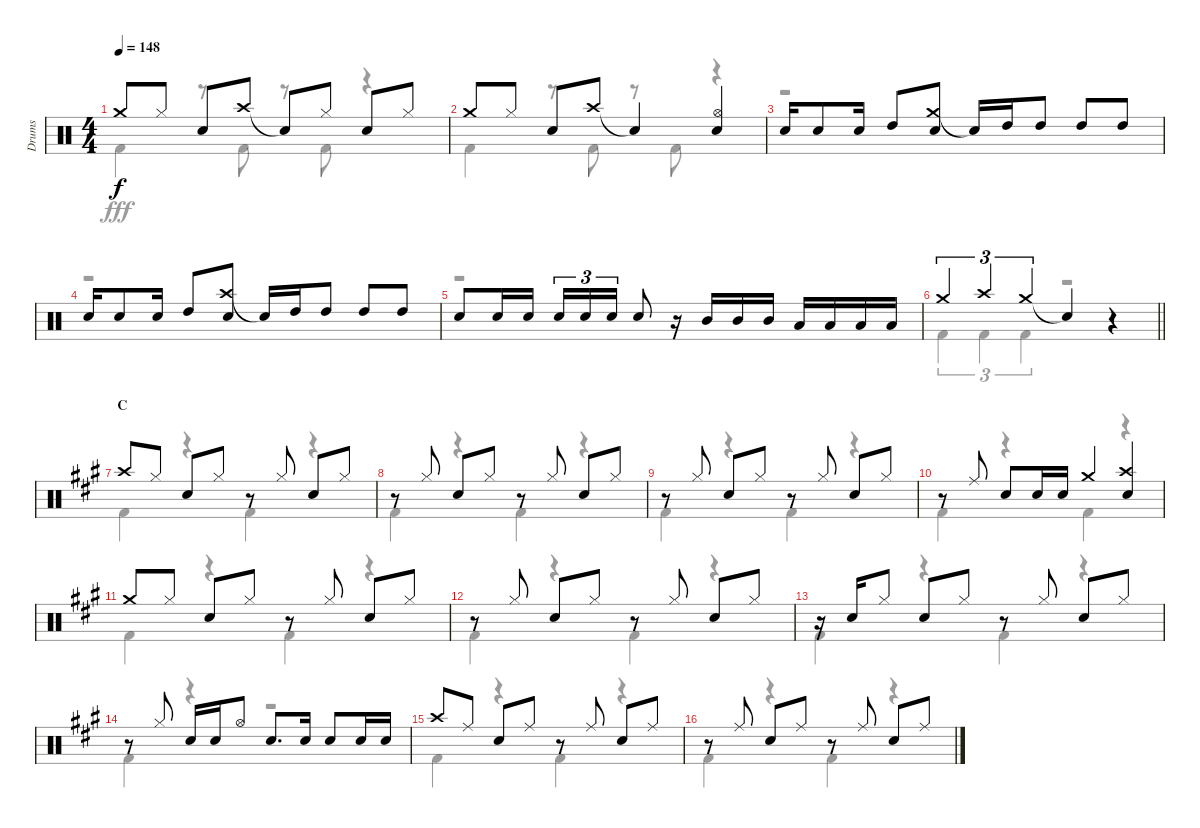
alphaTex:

\track ("Drums" "Drums") {instrument percussion}
\staff {score}
\articulation defaults
\voice
\ts (4 4)
\tempo 148
\clef neutral
\ks c "Crash medium (hit)".8{dy f} "Hi-Hat (closed)".8 "Snare (hit) 2".8 "Crash high (hit)".8 "Snare (hit)"{t}.8 "Hi-Hat (closed)".8 "Snare (hit) 2".8 "Hi-Hat (closed)".8
|
"Crash medium (hit)".8 "Hi-Hat (closed)".8 "Snare (hit) 2".8 "Crash high (hit)".8 "Snare (hit)"{t}.4 ("Hi-Hat (open)" "Snare (hit) 2").4 |
"Snare (hit) 2".16 "Snare (hit) 2".8 "Snare (hit) 2".16 "High Tom (hit)".8 ("Crash medium (hit)" "Snare (hit) 2").8 "Snare (hit)"{t}.16 "High Tom (hit)".16 "High Tom (hit)".8 "High Tom (hit)".8 "High Tom (hit)".8 |
"Snare (hit) 2".16 "Snare (hit) 2".8 "Snare (hit) 2".16 "High Tom (hit)".8 ("Crash high (hit)" "Snare (hit) 2").8 "Snare (hit)"{t}.16 "High Tom (hit)".16 "High Tom (hit)".8 "High Tom (hit)".8 "High Tom (hit)".8 |
"Snare (hit) 2".8 "Snare (hit) 2".16 "Snare (hit) 2".16 "Snare (hit) 2".16{tu (3 2)} "Snare (hit) 2".16{tu (3 2)} "Snare (hit) 2".16{tu (3 2)} "Snare (hit) 2".8 r.16 "Mid Tom (hit)".16 "Mid Tom (hit)".16 "Mid Tom (hit)".16 "Low Tom (hit)".16 "Low Tom (hit)".16 "Low Tom (hit)".16 "Low Tom (hit)".16 |
\barLineRight lightlight "Crash medium (hit)".4{tu (3 2)} "Crash high (hit)".4{tu (3 2)} "Crash medium (hit)".4{tu (3 2)} "Snare (hit)"{t}.4
r.4 |
\section ("" "C")
\ks a "Crash high (hit)".8 "Hi-Hat (closed)".8 "Snare (hit) 2".8 "Hi-Hat (closed)".8
r.8 "Hi-Hat (closed)".8 "Snare (hit) 2".8 "Hi-Hat (closed)".8 |
r.8 "Hi-Hat (closed)".8 "Snare (hit) 2".8 "Hi-Hat (closed)".8 r.8 "Hi-Hat (closed)".8 "Snare (hit) 2".8 "Hi-Hat (closed)".8 |
r.8 "Hi-Hat (closed)".8 "Snare (hit) 2".8 "Hi-Hat (closed)".8 r.8 "Hi-Hat (closed)".8 "Snare (hit) 2".8 "Hi-Hat (closed)".8 |
r.8 "Ride (middle)".8 "Snare (hit) 2".8 "Snare (hit) 2".16 "Snare (hit) 2".16 "Crash medium (hit)".4 ("Crash high (hit)" "Snare (hit) 2").4 |
"Crash medium (hit)".8 "Hi-Hat (closed)".8 "Snare (hit) 2".8 "Hi-Hat (closed)".8 r.8 "Hi-Hat (closed)".8 "Snare (hit) 2".8 "Hi-Hat (closed)".8 |
r.8 "Hi-Hat (closed)".8 "Snare (hit) 2".8 "Hi-Hat (closed)".8 r.8 "Hi-Hat (closed)".8 "Snare (hit) 2".8 "Hi-Hat (closed)".8 |
r.16 "Snare (hit) 2".16 "Hi-Hat (closed)".8 "Snare (hit) 2".8 "Hi-Hat (closed)".8 r.8 "Hi-Hat (closed)".8 "Snare (hit) 2".8 "Hi-Hat (closed)".8 |
r.8 "Hi-Hat (closed)".8 "Snare (hit) 2".16 "Snare (hit) 2".16 "Hi-Hat (open)".8 "Snare (hit) 2".8{d} "Snare (hit) 2".16 "Snare (hit) 2".8 "Snare (hit) 2".16 "Snare (hit) 2".16 |
"Crash high (hit)".8 "Ride (middle)".8 "Snare (hit) 2".8 "Ride (middle)".8 r.8 "Ride (middle)".8 "Snare (hit) 2".8 "Ride (middle)".8 |
r.8 "Ride (middle)".8 "Snare (hit) 2".8 "Ride (middle)".8 r.8 "Ride (middle)".8 "Snare (hit) 2".8 "Ride (middle)".8
\voice
\clef neutral
\ottava regular
\simile none
\ks c "Kick (hit) 2".4{dy fff}
r.8 "Kick (hit) 2".8 r.8 "Kick (hit) 2".8 r.4 |
"Kick (hit) 2".4 r.8 "Kick (hit) 2".8 r.8 "Kick (hit) 2".8 r.4 |
r.1 |
r.1 |
r.1 |
\barLineRight lightlight "Kick (hit) 2".4{tu (3 2)} "Kick (hit) 2".4{tu (3 2)} "Kick (hit) 2".4{tu (3 2)}
r.2 |
\ks a "Kick (hit) 2".4
r.4 "Kick (hit) 2".4 r.4 |
"Kick (hit) 2".4 r.4 "Kick (hit) 2".4 r.4 |
"Kick (hit) 2".4 r.4 "Kick (hit) 2".4 r.4 |
"Kick (hit) 2".4 r.4 "Kick (hit) 2".4 r.4 |
"Kick (hit) 2".4 r.4 "Kick (hit) 2".4 r.4 |
"Kick (hit) 2".4 r.4 "Kick (hit) 2".4 r.4 |
"Kick (hit) 2".4 r.4 "Kick (hit) 2".4 r.4 |
"Kick (hit) 2".4 r.4 r.2 |
"Kick (hit) 2".4 r.4 "Kick (hit) 2".4 r.4 |
"Kick (hit) 2".4 r.4 "Kick (hit) 2".4 r.4
